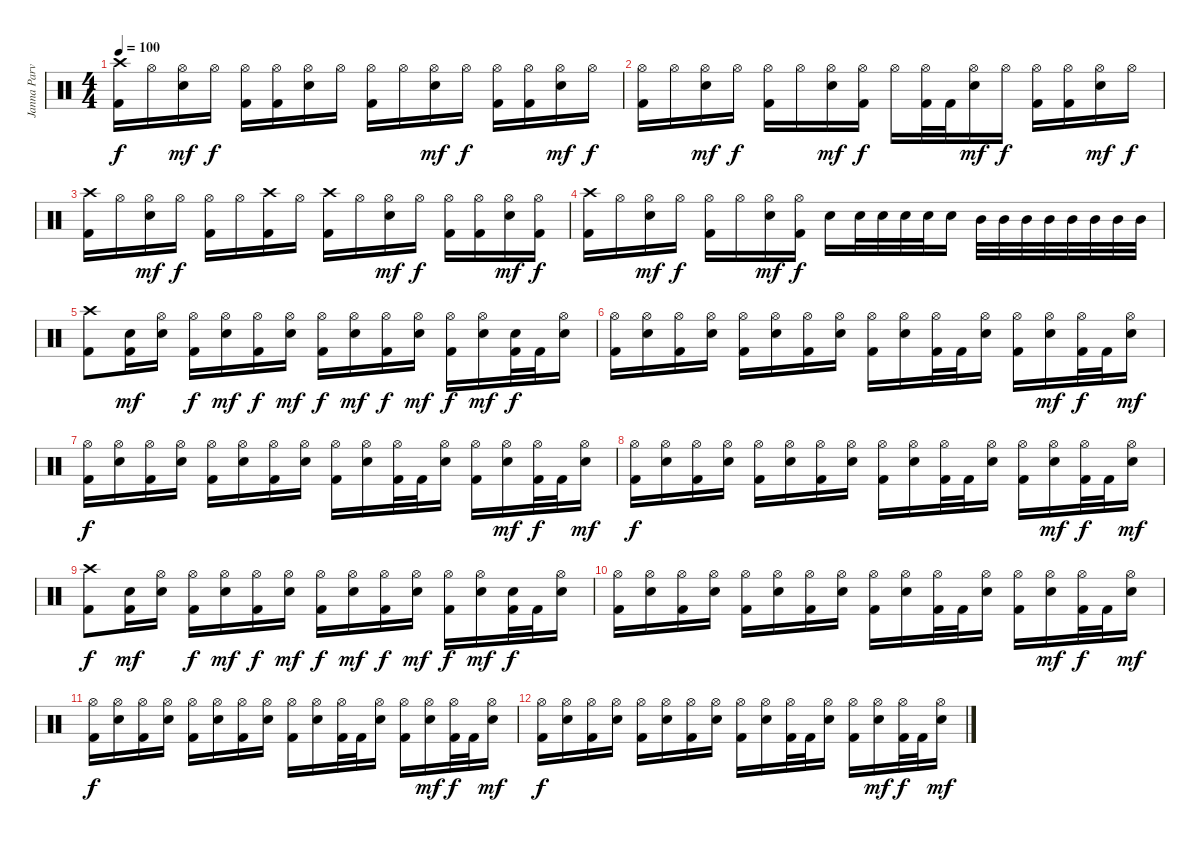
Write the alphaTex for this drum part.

\track ("Janna Parvienen" "Janna Parv") {solo instrument percussion}
\staff {score}
\articulation defaults
\ts (4 4)
\tempo 100
\clef neutral
\ks c
("Crash high (hit)" "Kick (hit) 2").16{dy f} "Hi-Hat (open)".16 ("Hi-Hat (open)" "Electric Snare (hit)").16{dy mf} "Hi-Hat (open)".16{dy f} ("Hi-Hat (open)" "Kick (hit) 2").16 ("Hi-Hat (open)" "Kick (hit) 2").16 ("Hi-Hat (open)" "Electric Snare (hit)").16 "Hi-Hat (open)".16 ("Hi-Hat (open)" "Kick (hit) 2").16 "Hi-Hat (open)".16 ("Hi-Hat (open)" "Electric Snare (hit)").16{dy mf} "Hi-Hat (open)".16{dy f} ("Hi-Hat (open)" "Kick (hit) 2").16 ("Hi-Hat (open)" "Kick (hit) 2").16 ("Hi-Hat (open)" "Electric Snare (hit)").16{dy mf} "Hi-Hat (open)".16{dy f} |
("Hi-Hat (open)" "Kick (hit) 2").16 "Hi-Hat (open)".16 ("Hi-Hat (open)" "Electric Snare (hit)").16{dy mf} "Hi-Hat (open)".16{dy f} ("Hi-Hat (open)" "Kick (hit) 2").16 "Hi-Hat (open)".16 ("Hi-Hat (open)" "Electric Snare (hit)").16{dy mf} ("Hi-Hat (open)" "Kick (hit) 2").16{dy f} "Hi-Hat (open)".16 ("Hi-Hat (open)" "Kick (hit) 2").32 "Kick (hit) 2".32 ("Hi-Hat (open)" "Electric Snare (hit)").16{dy mf} "Hi-Hat (open)".16{dy f} ("Hi-Hat (open)" "Kick (hit) 2").16 ("Hi-Hat (open)" "Kick (hit) 2").16 ("Hi-Hat (open)" "Electric Snare (hit)").16{dy mf} "Hi-Hat (open)".16{dy f} |
("Crash high (hit)" "Kick (hit) 2").16 "Hi-Hat (open)".16 ("Hi-Hat (open)" "Electric Snare (hit)").16{dy mf} "Hi-Hat (open)".16{dy f} ("Hi-Hat (open)" "Kick (hit) 2").16 "Hi-Hat (open)".16 ("Crash high (hit)" "Kick (hit) 2").16 "Hi-Hat (open)".16 ("Crash high (hit)" "Kick (hit) 2").16 "Hi-Hat (open)".16 ("Hi-Hat (open)" "Electric Snare (hit)").16{dy mf} "Hi-Hat (open)".16{dy f} ("Hi-Hat (open)" "Kick (hit) 2").16 ("Hi-Hat (open)" "Kick (hit) 2").16 ("Hi-Hat (open)" "Electric Snare (hit)").16{dy mf} ("Hi-Hat (open)" "Kick (hit) 2").16{dy f} |
("Crash high (hit)" "Kick (hit) 2").16 "Hi-Hat (open)".16 ("Hi-Hat (open)" "Electric Snare (hit)").16{dy mf} "Hi-Hat (open)".16{dy f} ("Hi-Hat (open)" "Kick (hit) 2").16 "Hi-Hat (open)".16 ("Hi-Hat (open)" "Electric Snare (hit)").16{dy mf} ("Hi-Hat (open)" "Kick (hit) 2").16{dy f} "Electric Snare (hit)".16 "Electric Snare (hit)".32 "Electric Snare (hit)".32 "Electric Snare (hit)".32 "Electric Snare (hit)".32 "Electric Snare (hit)".16 "Mid Tom (hit)".32 "Mid Tom (hit)".32 "Mid Tom (hit)".32 "Mid Tom (hit)".32 "Mid Tom (hit)".32 "Mid Tom (hit)".32 "Mid Tom (hit)".32 "Mid Tom (hit)".32 |
("Crash high (hit)" "Kick (hit) 2").8 ("Electric Snare (hit)" "Kick (hit) 2").16{dy mf} ("Hi-Hat (open)" "Electric Snare (hit)").16 ("Hi-Hat (open)" "Kick (hit) 2").16{dy f} ("Hi-Hat (open)" "Electric Snare (hit)").16{dy mf} ("Hi-Hat (open)" "Kick (hit) 2").16{dy f} ("Hi-Hat (open)" "Electric Snare (hit)").16{dy mf} ("Hi-Hat (open)" "Kick (hit) 2").16{dy f} ("Hi-Hat (open)" "Electric Snare (hit)").16{dy mf} ("Hi-Hat (open)" "Kick (hit) 2").16{dy f} ("Hi-Hat (open)" "Electric Snare (hit)").16{dy mf} ("Hi-Hat (open)" "Kick (hit) 2").16{dy f} ("Hi-Hat (open)" "Electric Snare (hit)").16{dy mf} ("Electric Snare (hit)" "Kick (hit) 2").32{dy f} "Kick (hit) 2".32 ("Hi-Hat (open)" "Electric Snare (hit)").16 |
("Hi-Hat (open)" "Kick (hit) 2").16 ("Hi-Hat (open)" "Electric Snare (hit)").16 ("Hi-Hat (open)" "Kick (hit) 2").16 ("Hi-Hat (open)" "Electric Snare (hit)").16 ("Hi-Hat (open)" "Kick (hit) 2").16 ("Hi-Hat (open)" "Electric Snare (hit)").16 ("Hi-Hat (open)" "Kick (hit) 2").16 ("Hi-Hat (open)" "Electric Snare (hit)").16 ("Hi-Hat (open)" "Kick (hit) 2").16 ("Hi-Hat (open)" "Electric Snare (hit)").16 ("Hi-Hat (open)" "Kick (hit) 2").32 "Kick (hit) 2".32 ("Hi-Hat (open)" "Electric Snare (hit)").16 ("Hi-Hat (open)" "Kick (hit) 2").16 ("Hi-Hat (open)" "Electric Snare (hit)").16{dy mf} ("Hi-Hat (open)" "Kick (hit) 2").32{dy f} "Kick (hit) 2".32 ("Hi-Hat (open)" "Electric Snare (hit)").16{dy mf} |
("Hi-Hat (open)" "Kick (hit) 2").16{dy f} ("Hi-Hat (open)" "Electric Snare (hit)").16 ("Hi-Hat (open)" "Kick (hit) 2").16 ("Hi-Hat (open)" "Electric Snare (hit)").16 ("Hi-Hat (open)" "Kick (hit) 2").16 ("Hi-Hat (open)" "Electric Snare (hit)").16 ("Hi-Hat (open)" "Kick (hit) 2").16 ("Hi-Hat (open)" "Electric Snare (hit)").16 ("Hi-Hat (open)" "Kick (hit) 2").16 ("Hi-Hat (open)" "Electric Snare (hit)").16 ("Hi-Hat (open)" "Kick (hit) 2").32 "Kick (hit) 2".32 ("Hi-Hat (open)" "Electric Snare (hit)").16 ("Hi-Hat (open)" "Kick (hit) 2").16 ("Hi-Hat (open)" "Electric Snare (hit)").16{dy mf} ("Hi-Hat (open)" "Kick (hit) 2").32{dy f} "Kick (hit) 2".32 ("Hi-Hat (open)" "Electric Snare (hit)").16{dy mf} |
("Hi-Hat (open)" "Kick (hit) 2").16{dy f} ("Hi-Hat (open)" "Electric Snare (hit)").16 ("Hi-Hat (open)" "Kick (hit) 2").16 ("Hi-Hat (open)" "Electric Snare (hit)").16 ("Hi-Hat (open)" "Kick (hit) 2").16 ("Hi-Hat (open)" "Electric Snare (hit)").16 ("Hi-Hat (open)" "Kick (hit) 2").16 ("Hi-Hat (open)" "Electric Snare (hit)").16 ("Hi-Hat (open)" "Kick (hit) 2").16 ("Hi-Hat (open)" "Electric Snare (hit)").16 ("Hi-Hat (open)" "Kick (hit) 2").32 "Kick (hit) 2".32 ("Hi-Hat (open)" "Electric Snare (hit)").16 ("Hi-Hat (open)" "Kick (hit) 2").16 ("Hi-Hat (open)" "Electric Snare (hit)").16{dy mf} ("Hi-Hat (open)" "Kick (hit) 2").32{dy f} "Kick (hit) 2".32 ("Hi-Hat (open)" "Electric Snare (hit)").16{dy mf} |
("Crash high (hit)" "Kick (hit) 2").8{dy f} ("Electric Snare (hit)" "Kick (hit) 2").16{dy mf} ("Hi-Hat (open)" "Electric Snare (hit)").16 ("Hi-Hat (open)" "Kick (hit) 2").16{dy f} ("Hi-Hat (open)" "Electric Snare (hit)").16{dy mf} ("Hi-Hat (open)" "Kick (hit) 2").16{dy f} ("Hi-Hat (open)" "Electric Snare (hit)").16{dy mf} ("Hi-Hat (open)" "Kick (hit) 2").16{dy f} ("Hi-Hat (open)" "Electric Snare (hit)").16{dy mf} ("Hi-Hat (open)" "Kick (hit) 2").16{dy f} ("Hi-Hat (open)" "Electric Snare (hit)").16{dy mf} ("Hi-Hat (open)" "Kick (hit) 2").16{dy f} ("Hi-Hat (open)" "Electric Snare (hit)").16{dy mf} ("Electric Snare (hit)" "Kick (hit) 2").32{dy f} "Kick (hit) 2".32 ("Hi-Hat (open)" "Electric Snare (hit)").16 |
("Hi-Hat (open)" "Kick (hit) 2").16 ("Hi-Hat (open)" "Electric Snare (hit)").16 ("Hi-Hat (open)" "Kick (hit) 2").16 ("Hi-Hat (open)" "Electric Snare (hit)").16 ("Hi-Hat (open)" "Kick (hit) 2").16 ("Hi-Hat (open)" "Electric Snare (hit)").16 ("Hi-Hat (open)" "Kick (hit) 2").16 ("Hi-Hat (open)" "Electric Snare (hit)").16 ("Hi-Hat (open)" "Kick (hit) 2").16 ("Hi-Hat (open)" "Electric Snare (hit)").16 ("Hi-Hat (open)" "Kick (hit) 2").32 "Kick (hit) 2".32 ("Hi-Hat (open)" "Electric Snare (hit)").16 ("Hi-Hat (open)" "Kick (hit) 2").16 ("Hi-Hat (open)" "Electric Snare (hit)").16{dy mf} ("Hi-Hat (open)" "Kick (hit) 2").32{dy f} "Kick (hit) 2".32 ("Hi-Hat (open)" "Electric Snare (hit)").16{dy mf} |
("Hi-Hat (open)" "Kick (hit) 2").16{dy f} ("Hi-Hat (open)" "Electric Snare (hit)").16 ("Hi-Hat (open)" "Kick (hit) 2").16 ("Hi-Hat (open)" "Electric Snare (hit)").16 ("Hi-Hat (open)" "Kick (hit) 2").16 ("Hi-Hat (open)" "Electric Snare (hit)").16 ("Hi-Hat (open)" "Kick (hit) 2").16 ("Hi-Hat (open)" "Electric Snare (hit)").16 ("Hi-Hat (open)" "Kick (hit) 2").16 ("Hi-Hat (open)" "Electric Snare (hit)").16 ("Hi-Hat (open)" "Kick (hit) 2").32 "Kick (hit) 2".32 ("Hi-Hat (open)" "Electric Snare (hit)").16 ("Hi-Hat (open)" "Kick (hit) 2").16 ("Hi-Hat (open)" "Electric Snare (hit)").16{dy mf} ("Hi-Hat (open)" "Kick (hit) 2").32{dy f} "Kick (hit) 2".32 ("Hi-Hat (open)" "Electric Snare (hit)").16{dy mf} |
("Hi-Hat (open)" "Kick (hit) 2").16{dy f} ("Hi-Hat (open)" "Electric Snare (hit)").16 ("Hi-Hat (open)" "Kick (hit) 2").16 ("Hi-Hat (open)" "Electric Snare (hit)").16 ("Hi-Hat (open)" "Kick (hit) 2").16 ("Hi-Hat (open)" "Electric Snare (hit)").16 ("Hi-Hat (open)" "Kick (hit) 2").16 ("Hi-Hat (open)" "Electric Snare (hit)").16 ("Hi-Hat (open)" "Kick (hit) 2").16 ("Hi-Hat (open)" "Electric Snare (hit)").16 ("Hi-Hat (open)" "Kick (hit) 2").32 "Kick (hit) 2".32 ("Hi-Hat (open)" "Electric Snare (hit)").16 ("Hi-Hat (open)" "Kick (hit) 2").16 ("Hi-Hat (open)" "Electric Snare (hit)").16{dy mf} ("Hi-Hat (open)" "Kick (hit) 2").32{dy f} "Kick (hit) 2".32 ("Hi-Hat (open)" "Electric Snare (hit)").16{dy mf}
